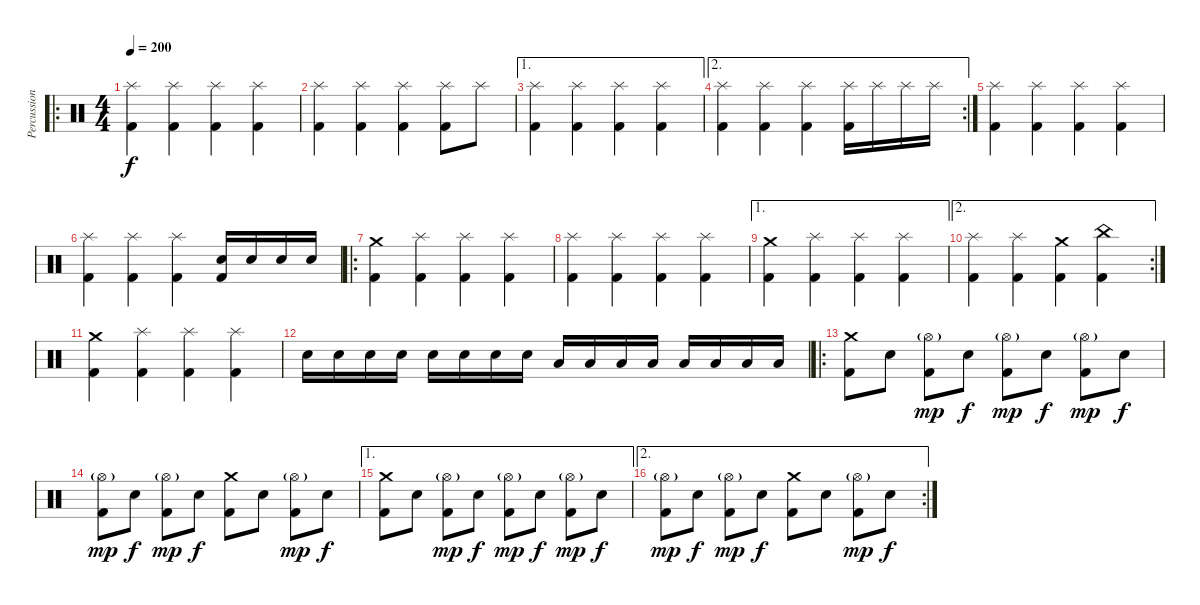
\track ("Percussion" "Percussion") {instrument percussion}
\staff {score}
\articulation defaults
\ro
\ts (4 4)
\tempo 200
\clef neutral
\ks c
("Splash (hit)" "Kick (hit) 2").4{dy f} ("Splash (hit)" "Kick (hit) 2").4 ("Splash (hit)" "Kick (hit) 2").4 ("Splash (hit)" "Kick (hit) 2").4 |
("Splash (hit)" "Kick (hit) 2").4 ("Splash (hit)" "Kick (hit) 2").4 ("Splash (hit)" "Kick (hit) 2").4 ("Splash (hit)" "Kick (hit) 2").8 "Splash (hit)".8 |
\ae 1
("Splash (hit)" "Kick (hit) 2").4 ("Splash (hit)" "Kick (hit) 2").4 ("Splash (hit)" "Kick (hit) 2").4 ("Splash (hit)" "Kick (hit) 2").4 |
\ae 2
\rc 2
("Splash (hit)" "Kick (hit) 2").4 ("Splash (hit)" "Kick (hit) 2").4 ("Splash (hit)" "Kick (hit) 2").4 ("Splash (hit)" "Kick (hit) 2").16 "Splash (hit)".16 "Splash (hit)".16 "Splash (hit)".16 |
("Splash (hit)" "Kick (hit) 2").4 ("Splash (hit)" "Kick (hit) 2").4 ("Splash (hit)" "Kick (hit) 2").4 ("Splash (hit)" "Kick (hit) 2").4 |
("Splash (hit)" "Kick (hit) 2").4 ("Splash (hit)" "Kick (hit) 2").4 ("Splash (hit)" "Kick (hit) 2").4 ("Electric Snare (hit)" "Kick (hit) 2").16 "Electric Snare (hit)".16 "Electric Snare (hit)".16 "Electric Snare (hit)".16 |
\ro
("Crash medium (hit)" "Kick (hit) 2").4 ("Splash (hit)" "Kick (hit) 2").4 ("Splash (hit)" "Kick (hit) 2").4 ("Splash (hit)" "Kick (hit) 2").4 |
("Splash (hit)" "Kick (hit) 2").4 ("Splash (hit)" "Kick (hit) 2").4 ("Splash (hit)" "Kick (hit) 2").4 ("Splash (hit)" "Kick (hit) 2").4 |
\ae 1
("Crash medium (hit)" "Kick (hit) 2").4 ("Splash (hit)" "Kick (hit) 2").4 ("Splash (hit)" "Kick (hit) 2").4 ("Splash (hit)" "Kick (hit) 2").4 |
\ae 2
\rc 2
("Splash (hit)" "Kick (hit) 2").4 ("Splash (hit)" "Kick (hit) 2").4 ("Crash medium (hit)" "Kick (hit) 2").4 ("China (hit)" "Kick (hit) 2").4 |
("Crash medium (hit)" "Kick (hit) 2").4 ("Splash (hit)" "Kick (hit) 2").4 ("Splash (hit)" "Kick (hit) 2").4 ("Splash (hit)" "Kick (hit) 2").4 |
"Electric Snare (hit)".16 "Electric Snare (hit)".16 "Electric Snare (hit)".16 "Electric Snare (hit)".16 "Electric Snare (hit)".16 "Electric Snare (hit)".16 "Electric Snare (hit)".16 "Electric Snare (hit)".16 "Low Tom (hit)".16 "Low Tom (hit)".16 "Low Tom (hit)".16 "Low Tom (hit)".16 "Low Tom (hit)".16 "Low Tom (hit)".16 "Low Tom (hit)".16 "Low Tom (hit)".16 |
\ro
("Crash medium (hit)" "Kick (hit) 2").8 "Electric Snare (hit)".8 ("Hi-Hat (open)"{g} "Kick (hit) 2").8{dy mp} "Electric Snare (hit)".8{dy f} ("Hi-Hat (open)"{g} "Kick (hit) 2").8{dy mp} "Electric Snare (hit)".8{dy f} ("Hi-Hat (open)"{g} "Kick (hit) 2").8{dy mp} "Electric Snare (hit)".8{dy f} |
("Hi-Hat (open)"{g} "Kick (hit) 2").8{dy mp} "Electric Snare (hit)".8{dy f} ("Hi-Hat (open)"{g} "Kick (hit) 2").8{dy mp} "Electric Snare (hit)".8{dy f} ("Crash medium (hit)" "Kick (hit) 2").8 "Electric Snare (hit)".8 ("Hi-Hat (open)"{g} "Kick (hit) 2").8{dy mp} "Electric Snare (hit)".8{dy f} |
\ae 1
("Crash medium (hit)" "Kick (hit) 2").8 "Electric Snare (hit)".8 ("Hi-Hat (open)"{g} "Kick (hit) 2").8{dy mp} "Electric Snare (hit)".8{dy f} ("Hi-Hat (open)"{g} "Kick (hit) 2").8{dy mp} "Electric Snare (hit)".8{dy f} ("Hi-Hat (open)"{g} "Kick (hit) 2").8{dy mp} "Electric Snare (hit)".8{dy f} |
\ae 2
\rc 2
("Hi-Hat (open)"{g} "Kick (hit) 2").8{dy mp} "Electric Snare (hit)".8{dy f} ("Hi-Hat (open)"{g} "Kick (hit) 2").8{dy mp} "Electric Snare (hit)".8{dy f} ("Crash medium (hit)" "Kick (hit) 2").8 "Electric Snare (hit)".8 ("Hi-Hat (open)"{g} "Kick (hit) 2").8{dy mp} "Electric Snare (hit)".8{dy f}
